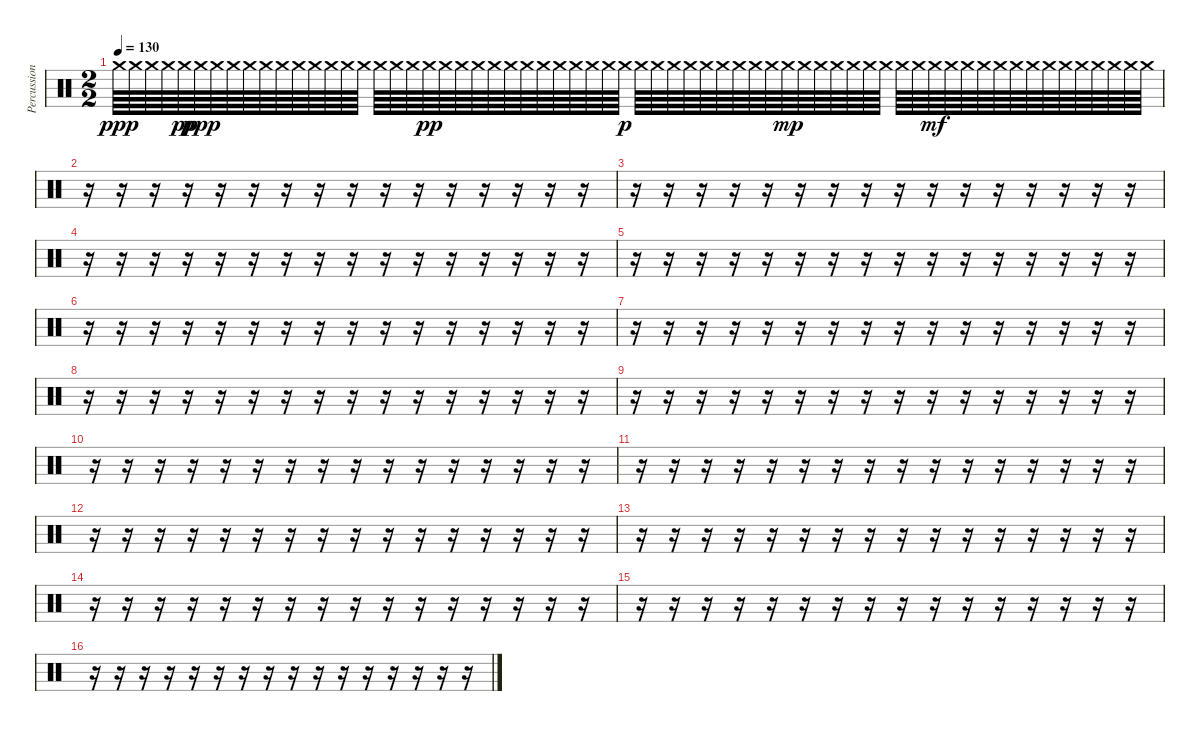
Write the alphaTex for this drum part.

\track ("Percussion" "Percussion") {instrument percussion}
\staff {score}
\articulation defaults
\ts (2 2)
\tempo 130
\clef neutral
\ks c "Crash medium (hit)".64{dy ppp} "Crash medium (hit)".64 "Crash medium (hit)".64 "Crash medium (hit)".64 "Crash medium (hit)".64{dy pp} "Crash medium (hit)".64{dy ppp} "Crash medium (hit)".64 "Crash medium (hit)".64 "Crash medium (hit)".64 "Crash medium (hit)".64 "Crash medium (hit)".64 "Crash medium (hit)".64 "Crash medium (hit)".64 "Crash medium (hit)".64 "Crash medium (hit)".64 "Crash medium (hit)".64 "Crash medium (hit)".64 "Crash medium (hit)".64 "Crash medium (hit)".64 "Crash medium (hit)".64{dy pp} "Crash medium (hit)".64 "Crash medium (hit)".64 "Crash medium (hit)".64 "Crash medium (hit)".64 "Crash medium (hit)".64 "Crash medium (hit)".64 "Crash medium (hit)".64 "Crash medium (hit)".64 "Crash medium (hit)".64 "Crash medium (hit)".64 "Crash medium (hit)".64 "Crash medium (hit)".64{dy p} "Crash medium (hit)".64 "Crash medium (hit)".64 "Crash medium (hit)".64 "Crash medium (hit)".64 "Crash medium (hit)".64 "Crash medium (hit)".64 "Crash medium (hit)".64 "Crash medium (hit)".64 "Crash medium (hit)".64 "Crash medium (hit)".64{dy mp} "Crash medium (hit)".64 "Crash medium (hit)".64 "Crash medium (hit)".64 "Crash medium (hit)".64 "Crash medium (hit)".64 "Crash medium (hit)".64 "Crash medium (hit)".64 "Crash medium (hit)".64 "Crash medium (hit)".64{dy mf} "Crash medium (hit)".64 "Crash medium (hit)".64 "Crash medium (hit)".64 "Crash medium (hit)".64 "Crash medium (hit)".64 "Crash medium (hit)".64 "Crash medium (hit)".64 "Crash medium (hit)".64 "Crash medium (hit)".64 "Crash medium (hit)".64 "Crash medium (hit)".64 "Crash medium (hit)".64 "Crash medium (hit)".64
|
r.16 r.16 r.16 r.16 r.16 r.16 r.16 r.16 r.16 r.16 r.16 r.16 r.16 r.16 r.16 r.16 |
r.16 r.16 r.16 r.16 r.16 r.16 r.16 r.16 r.16 r.16 r.16 r.16 r.16 r.16 r.16 r.16 |
r.16 r.16 r.16 r.16 r.16 r.16 r.16 r.16 r.16 r.16 r.16 r.16 r.16 r.16 r.16 r.16 |
r.16 r.16 r.16 r.16 r.16 r.16 r.16 r.16 r.16 r.16 r.16 r.16 r.16 r.16 r.16 r.16 |
r.16 r.16 r.16 r.16 r.16 r.16 r.16 r.16 r.16 r.16 r.16 r.16 r.16 r.16 r.16 r.16 |
r.16 r.16 r.16 r.16 r.16 r.16 r.16 r.16 r.16 r.16 r.16 r.16 r.16 r.16 r.16 r.16 |
r.16 r.16 r.16 r.16 r.16 r.16 r.16 r.16 r.16 r.16 r.16 r.16 r.16 r.16 r.16 r.16 |
r.16 r.16 r.16 r.16 r.16 r.16 r.16 r.16 r.16 r.16 r.16 r.16 r.16 r.16 r.16 r.16 |
r.16 r.16 r.16 r.16 r.16 r.16 r.16 r.16 r.16 r.16 r.16 r.16 r.16 r.16 r.16 r.16 |
r.16 r.16 r.16 r.16 r.16 r.16 r.16 r.16 r.16 r.16 r.16 r.16 r.16 r.16 r.16 r.16 |
r.16 r.16 r.16 r.16 r.16 r.16 r.16 r.16 r.16 r.16 r.16 r.16 r.16 r.16 r.16 r.16 |
r.16 r.16 r.16 r.16 r.16 r.16 r.16 r.16 r.16 r.16 r.16 r.16 r.16 r.16 r.16 r.16 |
r.16 r.16 r.16 r.16 r.16 r.16 r.16 r.16 r.16 r.16 r.16 r.16 r.16 r.16 r.16 r.16 |
r.16 r.16 r.16 r.16 r.16 r.16 r.16 r.16 r.16 r.16 r.16 r.16 r.16 r.16 r.16 r.16 |
r.16 r.16 r.16 r.16 r.16 r.16 r.16 r.16 r.16 r.16 r.16 r.16 r.16 r.16 r.16 r.16
